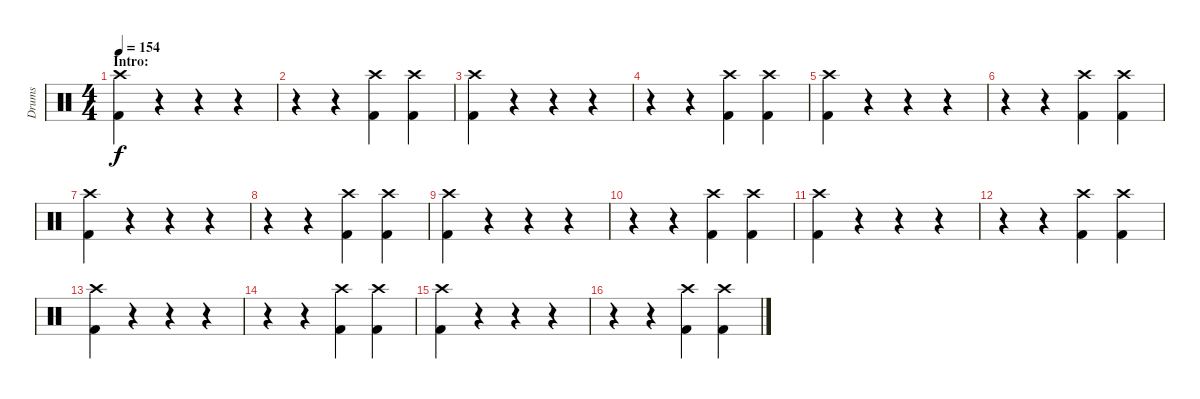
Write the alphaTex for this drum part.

\track ("Drums" "Drums") {instrument percussion}
\staff {score}
\articulation defaults
\ts (4 4)
\section ("" "Intro:")
\tempo 154
\clef neutral
\ks c
("Crash high (hit)" "Kick (hit) 2").4{dy f} r.4 r.4 r.4 |
r.4 r.4 ("Crash high (hit)" "Kick (hit) 2").4 ("Crash high (hit)" "Kick (hit) 2").4 |
("Crash high (hit)" "Kick (hit) 2").4 r.4 r.4 r.4 |
r.4 r.4 ("Crash high (hit)" "Kick (hit) 2").4 ("Crash high (hit)" "Kick (hit) 2").4 |
("Crash high (hit)" "Kick (hit) 2").4 r.4 r.4 r.4 |
r.4 r.4 ("Crash high (hit)" "Kick (hit) 2").4 ("Crash high (hit)" "Kick (hit) 2").4 |
("Crash high (hit)" "Kick (hit) 2").4 r.4 r.4 r.4 |
r.4 r.4 ("Crash high (hit)" "Kick (hit) 2").4 ("Crash high (hit)" "Kick (hit) 2").4 |
("Crash high (hit)" "Kick (hit) 2").4 r.4 r.4 r.4 |
r.4 r.4 ("Crash high (hit)" "Kick (hit) 2").4 ("Crash high (hit)" "Kick (hit) 2").4 |
("Crash high (hit)" "Kick (hit) 2").4 r.4 r.4 r.4 |
r.4 r.4 ("Crash high (hit)" "Kick (hit) 2").4 ("Crash high (hit)" "Kick (hit) 2").4 |
("Crash high (hit)" "Kick (hit) 2").4 r.4 r.4 r.4 |
r.4 r.4 ("Crash high (hit)" "Kick (hit) 2").4 ("Crash high (hit)" "Kick (hit) 2").4 |
("Crash high (hit)" "Kick (hit) 2").4 r.4 r.4 r.4 |
r.4 r.4 ("Crash high (hit)" "Kick (hit) 2").4 ("Crash high (hit)" "Kick (hit) 2").4
